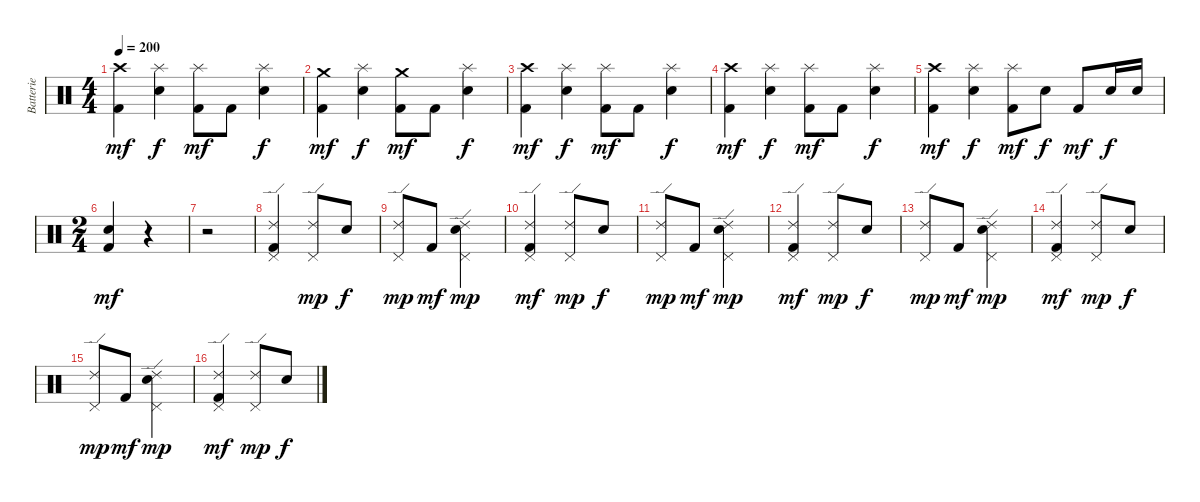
\track ("Batterie" "Batterie") {instrument percussion}
\staff {score}
\articulation defaults
\ts (4 4)
\tempo 200
\clef neutral
\ks c
("Crash high (hit)" "Kick (hit) 2").4{dy mf} ("Splash (hit)" "Snare (hit) 2").4{dy f} ("Splash (hit)" "Kick (hit) 2").8{dy mf} "Kick (hit) 2".8 ("Splash (hit)" "Snare (hit) 2").4{dy f} |
("Crash medium (hit)" "Kick (hit) 2").4{dy mf} ("Splash (hit)" "Snare (hit) 2").4{dy f} ("Crash medium (hit)" "Kick (hit) 2").8{dy mf} "Kick (hit) 2".8 ("Splash (hit)" "Snare (hit) 2").4{dy f} |
("Crash high (hit)" "Kick (hit) 2").4{dy mf} ("Splash (hit)" "Snare (hit) 2").4{dy f} ("Splash (hit)" "Kick (hit) 2").8{dy mf} "Kick (hit) 2".8 ("Splash (hit)" "Snare (hit) 2").4{dy f} |
("Crash high (hit)" "Kick (hit) 2").4{dy mf} ("Splash (hit)" "Snare (hit) 2").4{dy f} ("Splash (hit)" "Kick (hit) 2").8{dy mf} "Kick (hit) 2".8 ("Splash (hit)" "Snare (hit) 2").4{dy f} |
("Crash high (hit)" "Kick (hit) 2").4{dy mf} ("Splash (hit)" "Snare (hit) 2").4{dy f} ("Splash (hit)" "Kick (hit) 2").8{dy mf} "Snare (hit) 2".8{dy f} "Kick (hit) 2".8{dy mf} "Snare (hit) 2".16{dy f} "Snare (hit) 2".16 |
\ts (2 4)
("Snare (hit) 2" "Kick (hit) 2").4{dy mf} r.4 |
r.2 |
("Pedal Hi-Hat (hit)" "Ride (edge) 2" "Kick (hit) 2").4 ("Pedal Hi-Hat (hit)" "Ride (edge) 2").8{dy mp} "Snare (hit) 2".8{dy f} |
("Pedal Hi-Hat (hit)" "Ride (edge) 2").8{dy mp} "Kick (hit) 2".8{dy mf} ("Pedal Hi-Hat (hit)" "Ride (edge) 2" "Snare (hit) 2").4{dy mp} |
("Pedal Hi-Hat (hit)" "Ride (edge) 2" "Kick (hit) 2").4{dy mf} ("Pedal Hi-Hat (hit)" "Ride (edge) 2").8{dy mp} "Snare (hit) 2".8{dy f} |
("Pedal Hi-Hat (hit)" "Ride (edge) 2").8{dy mp} "Kick (hit) 2".8{dy mf} ("Pedal Hi-Hat (hit)" "Ride (edge) 2" "Snare (hit) 2").4{dy mp} |
("Pedal Hi-Hat (hit)" "Ride (edge) 2" "Kick (hit) 2").4{dy mf} ("Pedal Hi-Hat (hit)" "Ride (edge) 2").8{dy mp} "Snare (hit) 2".8{dy f} |
("Pedal Hi-Hat (hit)" "Ride (edge) 2").8{dy mp} "Kick (hit) 2".8{dy mf} ("Pedal Hi-Hat (hit)" "Ride (edge) 2" "Snare (hit) 2").4{dy mp} |
("Pedal Hi-Hat (hit)" "Ride (edge) 2" "Kick (hit) 2").4{dy mf} ("Pedal Hi-Hat (hit)" "Ride (edge) 2").8{dy mp} "Snare (hit) 2".8{dy f} |
("Pedal Hi-Hat (hit)" "Ride (edge) 2").8{dy mp} "Kick (hit) 2".8{dy mf} ("Pedal Hi-Hat (hit)" "Ride (edge) 2" "Snare (hit) 2").4{dy mp} |
("Pedal Hi-Hat (hit)" "Ride (edge) 2" "Kick (hit) 2").4{dy mf} ("Pedal Hi-Hat (hit)" "Ride (edge) 2").8{dy mp} "Snare (hit) 2".8{dy f}
